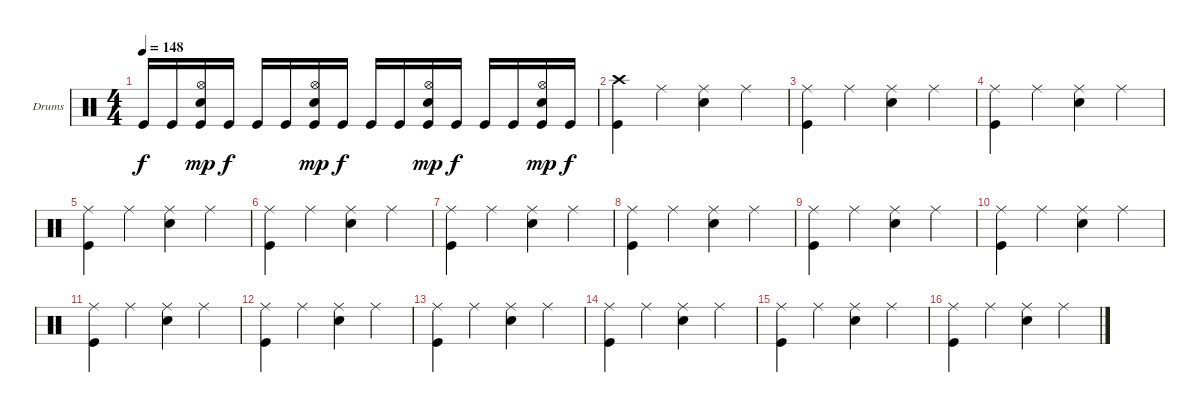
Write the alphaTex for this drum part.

\bracketExtendMode groupsimilarinstruments
\firstSystemTrackNameOrientation horizontal
\otherSystemsTrackNameOrientation horizontal
\track ("Drumkit" "Drums") {instrument percussion}
\staff {score}
\articulation defaults
\ts (4 4)
\beaming (8 2 2 2 2)
\tempo 148
\clef neutral
\ks c "Kick (hit)".16{dy f} "Kick (hit)".16
("Hi-Hat (open)" "Kick (hit)" "Snare (hit) 2").16{dy mp} "Kick (hit)".16{dy f} "Kick (hit)".16 "Kick (hit)".16 ("Hi-Hat (open)" "Kick (hit)" "Snare (hit) 2").16{dy mp} "Kick (hit)".16{dy f} "Kick (hit)".16 "Kick (hit)".16 ("Hi-Hat (open)" "Kick (hit)" "Snare (hit) 2").16{dy mp} "Kick (hit)".16{dy f} "Kick (hit)".16 "Kick (hit)".16 ("Hi-Hat (open)" "Kick (hit)" "Snare (hit) 2").16{dy mp} "Kick (hit)".16{dy f} |
("Crash high (hit)" "Kick (hit)").4 "Ride (middle)".4 ("Ride (middle)" "Snare (hit) 2").4 "Ride (middle)".4 |
("Ride (middle)" "Kick (hit)").4 "Ride (middle)".4 ("Ride (middle)" "Snare (hit) 2").4 "Ride (middle)".4 |
("Ride (middle)" "Kick (hit)").4 "Ride (middle)".4 ("Ride (middle)" "Snare (hit) 2").4 "Ride (middle)".4 |
("Ride (middle)" "Kick (hit)").4 "Ride (middle)".4 ("Ride (middle)" "Snare (hit) 2").4 "Ride (middle)".4 |
("Ride (middle)" "Kick (hit)").4 "Ride (middle)".4 ("Ride (middle)" "Snare (hit) 2").4 "Ride (middle)".4 |
("Ride (middle)" "Kick (hit)").4 "Ride (middle)".4 ("Ride (middle)" "Snare (hit) 2").4 "Ride (middle)".4 |
("Ride (middle)" "Kick (hit)").4 "Ride (middle)".4 ("Ride (middle)" "Snare (hit) 2").4 "Ride (middle)".4 |
("Ride (middle)" "Kick (hit)").4 "Ride (middle)".4 ("Ride (middle)" "Snare (hit) 2").4 "Ride (middle)".4 |
("Ride (middle)" "Kick (hit)").4 "Ride (middle)".4 ("Ride (middle)" "Snare (hit) 2").4 "Ride (middle)".4 |
("Ride (middle)" "Kick (hit)").4 "Ride (middle)".4 ("Ride (middle)" "Snare (hit) 2").4 "Ride (middle)".4 |
("Ride (middle)" "Kick (hit)").4 "Ride (middle)".4 ("Ride (middle)" "Snare (hit) 2").4 "Ride (middle)".4 |
("Ride (middle)" "Kick (hit)").4 "Ride (middle)".4 ("Ride (middle)" "Snare (hit) 2").4 "Ride (middle)".4 |
("Ride (middle)" "Kick (hit)").4 "Ride (middle)".4 ("Ride (middle)" "Snare (hit) 2").4 "Ride (middle)".4 |
("Ride (middle)" "Kick (hit)").4 "Ride (middle)".4 ("Ride (middle)" "Snare (hit) 2").4 "Ride (middle)".4 |
("Ride (middle)" "Kick (hit)").4 "Ride (middle)".4 ("Ride (middle)" "Snare (hit) 2").4 "Ride (middle)".4
